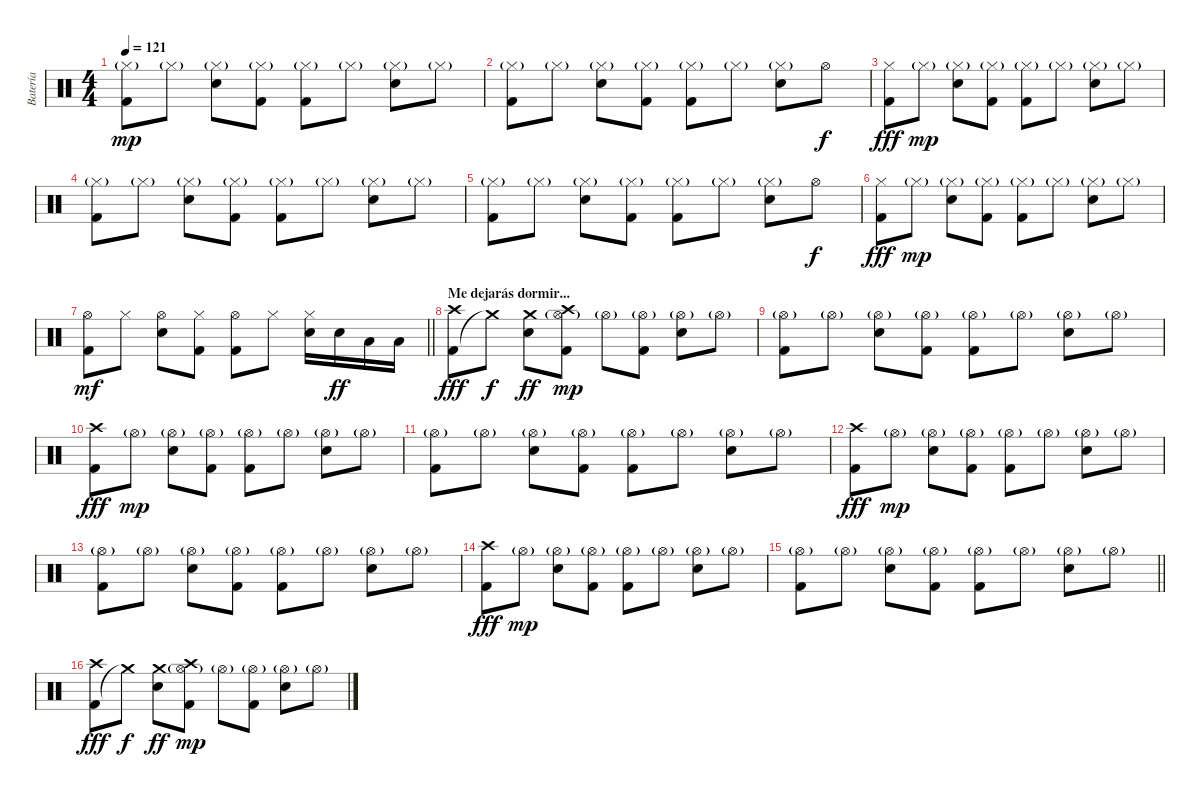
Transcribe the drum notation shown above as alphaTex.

\track ("Batería" "Batería") {instrument percussion}
\staff {score}
\articulation defaults
\ts (4 4)
\tempo 121
\clef neutral
\ks c
("Kick (hit) 2" "Hi-Hat (closed)"{g}).8{dy mp} "Hi-Hat (closed)"{g}.8 ("Snare (hit) 2" "Hi-Hat (closed)"{g}).8 ("Kick (hit) 2" "Hi-Hat (closed)"{g}).8 ("Kick (hit) 2" "Hi-Hat (closed)"{g}).8 "Hi-Hat (closed)"{g}.8 ("Snare (hit) 2" "Hi-Hat (closed)"{g}).8 "Hi-Hat (closed)"{g}.8 |
("Kick (hit) 2" "Hi-Hat (closed)"{g}).8 "Hi-Hat (closed)"{g}.8 ("Snare (hit) 2" "Hi-Hat (closed)"{g}).8 ("Kick (hit) 2" "Hi-Hat (closed)"{g}).8 ("Kick (hit) 2" "Hi-Hat (closed)"{g}).8 "Hi-Hat (closed)"{g}.8 ("Snare (hit) 2" "Hi-Hat (closed)"{g}).8 "Hi-Hat (open)".8{dy f} |
("Kick (hit) 2" "Hi-Hat (closed)").8{dy fff} "Hi-Hat (closed)"{g}.8{dy mp} ("Snare (hit) 2" "Hi-Hat (closed)"{g}).8 ("Kick (hit) 2" "Hi-Hat (closed)"{g}).8 ("Kick (hit) 2" "Hi-Hat (closed)"{g}).8 "Hi-Hat (closed)"{g}.8 ("Snare (hit) 2" "Hi-Hat (closed)"{g}).8 "Hi-Hat (closed)"{g}.8 |
("Kick (hit) 2" "Hi-Hat (closed)"{g}).8 "Hi-Hat (closed)"{g}.8 ("Snare (hit) 2" "Hi-Hat (closed)"{g}).8 ("Kick (hit) 2" "Hi-Hat (closed)"{g}).8 ("Kick (hit) 2" "Hi-Hat (closed)"{g}).8 "Hi-Hat (closed)"{g}.8 ("Snare (hit) 2" "Hi-Hat (closed)"{g}).8 "Hi-Hat (closed)"{g}.8 |
("Kick (hit) 2" "Hi-Hat (closed)"{g}).8 "Hi-Hat (closed)"{g}.8 ("Snare (hit) 2" "Hi-Hat (closed)"{g}).8 ("Kick (hit) 2" "Hi-Hat (closed)"{g}).8 ("Kick (hit) 2" "Hi-Hat (closed)"{g}).8 "Hi-Hat (closed)"{g}.8 ("Snare (hit) 2" "Hi-Hat (closed)"{g}).8 "Hi-Hat (open)".8{dy f} |
("Kick (hit) 2" "Hi-Hat (closed)").8{dy fff} "Hi-Hat (closed)"{g}.8{dy mp} ("Snare (hit) 2" "Hi-Hat (closed)"{g}).8 ("Kick (hit) 2" "Hi-Hat (closed)"{g}).8 ("Kick (hit) 2" "Hi-Hat (closed)"{g}).8 "Hi-Hat (closed)"{g}.8 ("Snare (hit) 2" "Hi-Hat (closed)"{g}).8 "Hi-Hat (closed)"{g}.8 |
\barLineRight lightlight
("Kick (hit) 2" "Hi-Hat (open)").8{dy mf} "Hi-Hat (closed)".8 ("Snare (hit) 2" "Hi-Hat (open)").8 ("Kick (hit) 2" "Hi-Hat (closed)").8 ("Kick (hit) 2" "Hi-Hat (open)").8 "Hi-Hat (closed)".8 ("Snare (hit) 2" "Hi-Hat (closed)").16 "Snare (hit) 2".16{dy ff} "Low Tom (hit)".16 "Low Tom (hit)".16 |
\section ("" "Me dejarás dormir...")
("Kick (hit) 2" "Crash high (hit)").8{dy fff} "Crash medium (hit)"{t}.8{dy f} ("Snare (hit) 2" "Crash medium (hit)").8{dy ff} ("Kick (hit) 2" "Hi-Hat (open)"{g} "Crash high (hit)").8{dy mp} "Hi-Hat (open)"{g}.8 ("Kick (hit) 2" "Hi-Hat (open)"{g}).8 ("Snare (hit) 2" "Hi-Hat (open)"{g}).8 "Hi-Hat (open)"{g}.8 |
("Kick (hit) 2" "Hi-Hat (open)"{g}).8 "Hi-Hat (open)"{g}.8 ("Snare (hit) 2" "Hi-Hat (open)"{g}).8 ("Kick (hit) 2" "Hi-Hat (open)"{g}).8 ("Kick (hit) 2" "Hi-Hat (open)"{g}).8 "Hi-Hat (open)"{g}.8 ("Snare (hit) 2" "Hi-Hat (open)"{g}).8 "Hi-Hat (open)"{g}.8 |
("Kick (hit) 2" "Crash high (hit)").8{dy fff} "Hi-Hat (open)"{g}.8{dy mp} ("Snare (hit) 2" "Hi-Hat (open)"{g}).8 ("Kick (hit) 2" "Hi-Hat (open)"{g}).8 ("Kick (hit) 2" "Hi-Hat (open)"{g}).8 "Hi-Hat (open)"{g}.8 ("Snare (hit) 2" "Hi-Hat (open)"{g}).8 "Hi-Hat (open)"{g}.8 |
("Kick (hit) 2" "Hi-Hat (open)"{g}).8 "Hi-Hat (open)"{g}.8 ("Snare (hit) 2" "Hi-Hat (open)"{g}).8 ("Kick (hit) 2" "Hi-Hat (open)"{g}).8 ("Kick (hit) 2" "Hi-Hat (open)"{g}).8 "Hi-Hat (open)"{g}.8 ("Snare (hit) 2" "Hi-Hat (open)"{g}).8 "Hi-Hat (open)"{g}.8 |
("Kick (hit) 2" "Crash high (hit)").8{dy fff} "Hi-Hat (open)"{g}.8{dy mp} ("Snare (hit) 2" "Hi-Hat (open)"{g}).8 ("Kick (hit) 2" "Hi-Hat (open)"{g}).8 ("Kick (hit) 2" "Hi-Hat (open)"{g}).8 "Hi-Hat (open)"{g}.8 ("Snare (hit) 2" "Hi-Hat (open)"{g}).8 "Hi-Hat (open)"{g}.8 |
("Kick (hit) 2" "Hi-Hat (open)"{g}).8 "Hi-Hat (open)"{g}.8 ("Snare (hit) 2" "Hi-Hat (open)"{g}).8 ("Kick (hit) 2" "Hi-Hat (open)"{g}).8 ("Kick (hit) 2" "Hi-Hat (open)"{g}).8 "Hi-Hat (open)"{g}.8 ("Snare (hit) 2" "Hi-Hat (open)"{g}).8 "Hi-Hat (open)"{g}.8 |
("Kick (hit) 2" "Crash high (hit)").8{dy fff} "Hi-Hat (open)"{g}.8{dy mp} ("Snare (hit) 2" "Hi-Hat (open)"{g}).8 ("Kick (hit) 2" "Hi-Hat (open)"{g}).8 ("Kick (hit) 2" "Hi-Hat (open)"{g}).8 "Hi-Hat (open)"{g}.8 ("Snare (hit) 2" "Hi-Hat (open)"{g}).8 "Hi-Hat (open)"{g}.8 |
\barLineRight lightlight
("Kick (hit) 2" "Hi-Hat (open)"{g}).8 "Hi-Hat (open)"{g}.8 ("Snare (hit) 2" "Hi-Hat (open)"{g}).8 ("Kick (hit) 2" "Hi-Hat (open)"{g}).8 ("Kick (hit) 2" "Hi-Hat (open)"{g}).8 "Hi-Hat (open)"{g}.8 ("Snare (hit) 2" "Hi-Hat (open)"{g}).8 "Hi-Hat (open)"{g}.8 |
("Kick (hit) 2" "Crash high (hit)").8{dy fff} "Crash medium (hit)"{t}.8{dy f} ("Snare (hit) 2" "Crash medium (hit)").8{dy ff} ("Kick (hit) 2" "Hi-Hat (open)"{g} "Crash high (hit)").8{dy mp} "Hi-Hat (open)"{g}.8 ("Kick (hit) 2" "Hi-Hat (open)"{g}).8 ("Snare (hit) 2" "Hi-Hat (open)"{g}).8 "Hi-Hat (open)"{g}.8
